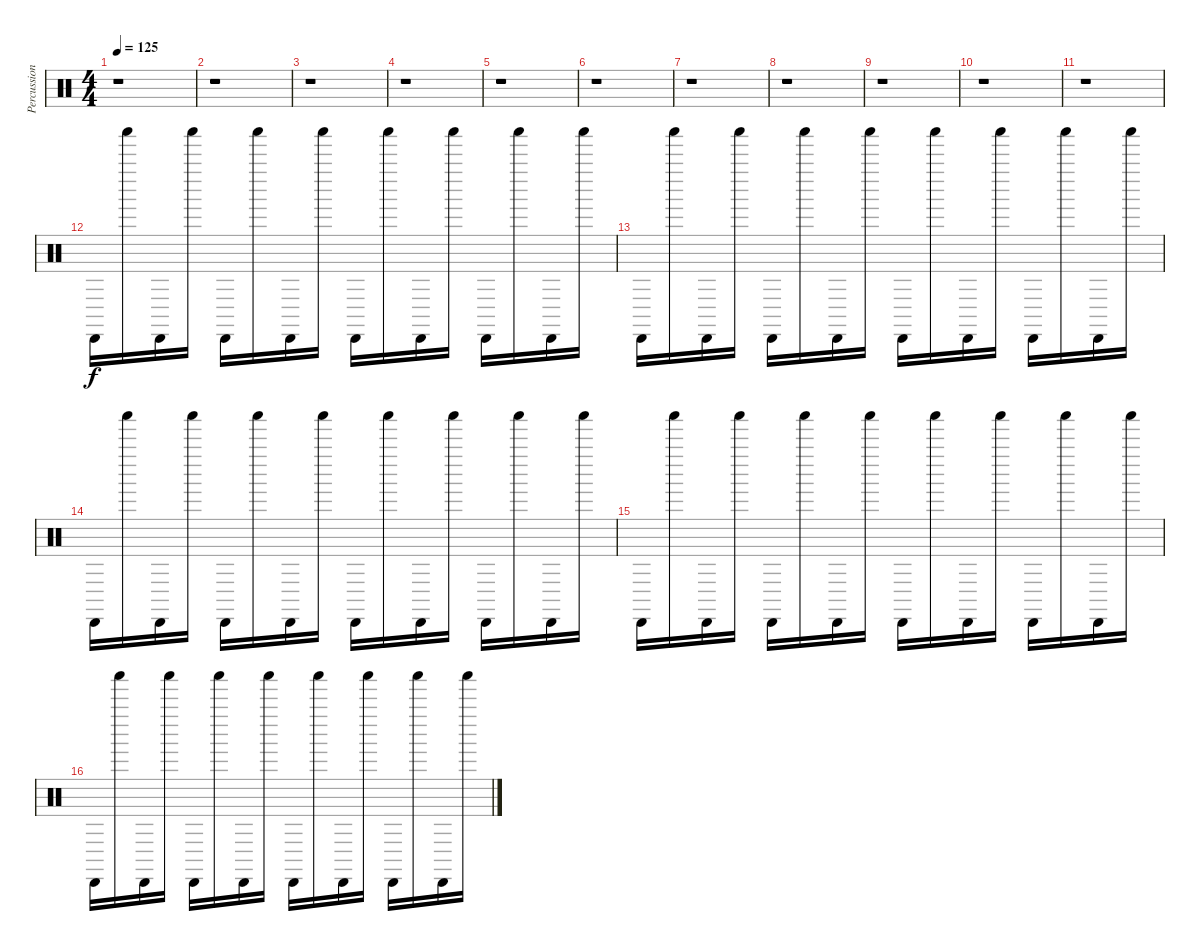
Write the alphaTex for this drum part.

\track ("Percussion" "Percussion") {instrument percussion}
\staff {score}
\articulation defaults
\ts (4 4)
\tempo 125
\clef neutral
\ks c
r.1{dy f} |
r.1 |
r.1 |
r.1 |
r.1 |
r.1 |
r.1 |
r.1 |
r.1 |
r.1 |
r.1 |
"Cabasa (hit)".16 "Shaker (hit)".16 "Cabasa (hit)".16 "Shaker (hit)".16 "Cabasa (hit)".16 "Shaker (hit)".16 "Cabasa (hit)".16 "Shaker (hit)".16 "Cabasa (hit)".16 "Shaker (hit)".16 "Cabasa (hit)".16 "Shaker (hit)".16 "Cabasa (hit)".16 "Shaker (hit)".16 "Cabasa (hit)".16 "Shaker (hit)".16 |
"Cabasa (hit)".16 "Shaker (hit)".16 "Cabasa (hit)".16 "Shaker (hit)".16 "Cabasa (hit)".16 "Shaker (hit)".16 "Cabasa (hit)".16 "Shaker (hit)".16 "Cabasa (hit)".16 "Shaker (hit)".16 "Cabasa (hit)".16 "Shaker (hit)".16 "Cabasa (hit)".16 "Shaker (hit)".16 "Cabasa (hit)".16 "Shaker (hit)".16 |
"Cabasa (hit)".16 "Shaker (hit)".16 "Cabasa (hit)".16 "Shaker (hit)".16 "Cabasa (hit)".16 "Shaker (hit)".16 "Cabasa (hit)".16 "Shaker (hit)".16 "Cabasa (hit)".16 "Shaker (hit)".16 "Cabasa (hit)".16 "Shaker (hit)".16 "Cabasa (hit)".16 "Shaker (hit)".16 "Cabasa (hit)".16 "Shaker (hit)".16 |
"Cabasa (hit)".16 "Shaker (hit)".16 "Cabasa (hit)".16 "Shaker (hit)".16 "Cabasa (hit)".16 "Shaker (hit)".16 "Cabasa (hit)".16 "Shaker (hit)".16 "Cabasa (hit)".16 "Shaker (hit)".16 "Cabasa (hit)".16 "Shaker (hit)".16 "Cabasa (hit)".16 "Shaker (hit)".16 "Cabasa (hit)".16 "Shaker (hit)".16 |
"Cabasa (hit)".16 "Shaker (hit)".16 "Cabasa (hit)".16 "Shaker (hit)".16 "Cabasa (hit)".16 "Shaker (hit)".16 "Cabasa (hit)".16 "Shaker (hit)".16 "Cabasa (hit)".16 "Shaker (hit)".16 "Cabasa (hit)".16 "Shaker (hit)".16 "Cabasa (hit)".16 "Shaker (hit)".16 "Cabasa (hit)".16 "Shaker (hit)".16
